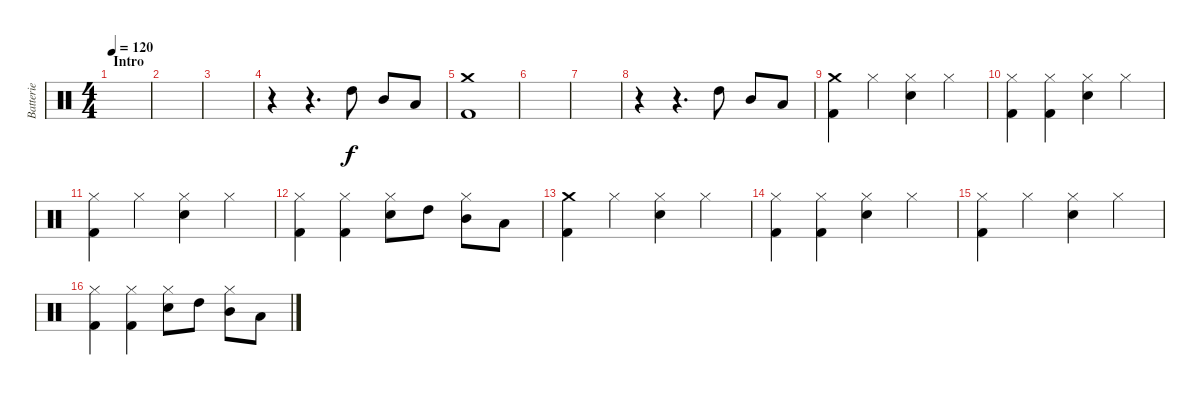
\track ("Batterie" "Batterie") {instrument percussion}
\staff {score}
\articulation defaults
\ts (4 4)
\section ("" "Intro")
\tempo 120
\clef neutral
\ks c
|
|
|
r.4 r.4{d} "High Tom (hit)".8 "Mid Tom (hit)".8 "Low Tom (hit)".8 |
("Crash medium (hit)" "Kick (hit) 2").1 |
|
|
r.4 r.4{d} "High Tom (hit)".8 "Mid Tom (hit)".8 "Low Tom (hit)".8 |
("Crash medium (hit)" "Kick (hit) 2").4 "Hi-Hat (closed)".4 ("Snare (hit) 2" "Hi-Hat (closed)").4 "Hi-Hat (closed)".4 |
("Kick (hit) 2" "Hi-Hat (closed)").4 ("Kick (hit) 2" "Hi-Hat (closed)").4 ("Snare (hit) 2" "Hi-Hat (closed)").4 "Hi-Hat (closed)".4 |
("Kick (hit) 2" "Hi-Hat (closed)").4 "Hi-Hat (closed)".4 ("Snare (hit) 2" "Hi-Hat (closed)").4 "Hi-Hat (closed)".4 |
("Kick (hit) 2" "Hi-Hat (closed)").4 ("Kick (hit) 2" "Hi-Hat (closed)").4 ("Snare (hit) 2" "Hi-Hat (closed)").8 "High Tom (hit)".8 ("Mid Tom (hit)" "Hi-Hat (closed)").8 "Low Tom (hit)".8 |
("Crash medium (hit)" "Kick (hit) 2").4 "Hi-Hat (closed)".4 ("Snare (hit) 2" "Hi-Hat (closed)").4 "Hi-Hat (closed)".4 |
("Kick (hit) 2" "Hi-Hat (closed)").4 ("Kick (hit) 2" "Hi-Hat (closed)").4 ("Snare (hit) 2" "Hi-Hat (closed)").4 "Hi-Hat (closed)".4 |
("Kick (hit) 2" "Hi-Hat (closed)").4 "Hi-Hat (closed)".4 ("Snare (hit) 2" "Hi-Hat (closed)").4 "Hi-Hat (closed)".4 |
("Kick (hit) 2" "Hi-Hat (closed)").4 ("Kick (hit) 2" "Hi-Hat (closed)").4 ("Snare (hit) 2" "Hi-Hat (closed)").8 "High Tom (hit)".8 ("Mid Tom (hit)" "Hi-Hat (closed)").8 "Low Tom (hit)".8
